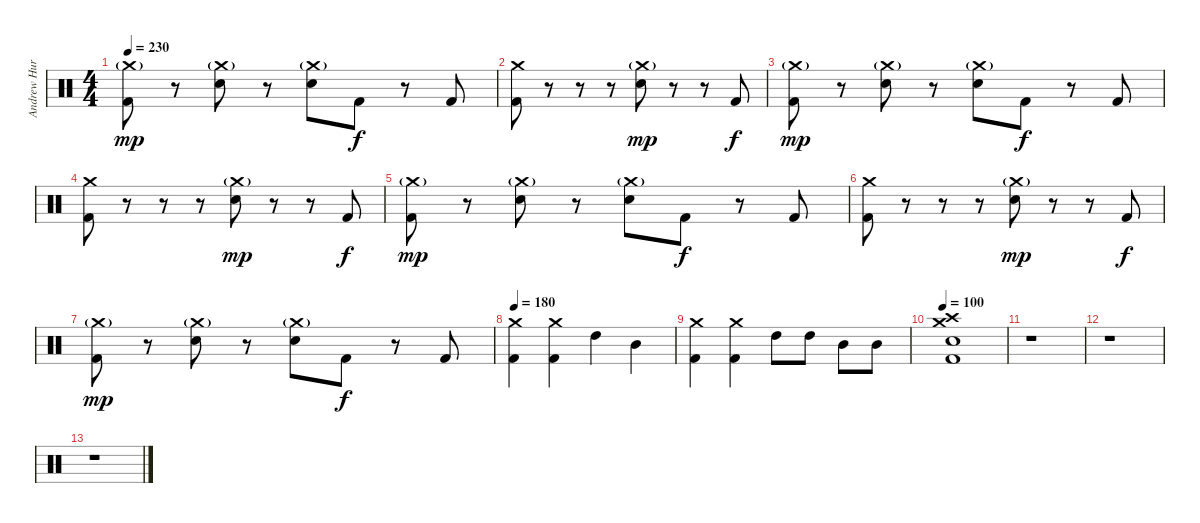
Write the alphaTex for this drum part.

\track ("Andrew Hurley (Drums)" "Andrew Hur") {instrument percussion}
\staff {score}
\articulation defaults
\ts (4 4)
\tempo 230
\clef neutral
\ks c
("Crash medium (hit)"{g} "Kick (hit) 2").8{dy mp} r.8 ("Crash medium (hit)"{g} "Electric Snare (hit)").8 r.8 ("Crash medium (hit)"{g} "Electric Snare (hit)").8 "Kick (hit) 2".8{dy f} r.8 "Kick (hit) 2".8 |
("Crash medium (hit)" "Kick (hit) 2").8 r.8 r.8 r.8 ("Crash medium (hit)"{g} "Electric Snare (hit)").8{dy mp} r.8 r.8 "Kick (hit) 2".8{dy f} |
("Crash medium (hit)"{g} "Kick (hit) 2").8{dy mp} r.8 ("Crash medium (hit)"{g} "Electric Snare (hit)").8 r.8 ("Crash medium (hit)"{g} "Electric Snare (hit)").8 "Kick (hit) 2".8{dy f} r.8 "Kick (hit) 2".8 |
("Crash medium (hit)" "Kick (hit) 2").8 r.8 r.8 r.8 ("Crash medium (hit)"{g} "Electric Snare (hit)").8{dy mp} r.8 r.8 "Kick (hit) 2".8{dy f} |
("Crash medium (hit)"{g} "Kick (hit) 2").8{dy mp} r.8 ("Crash medium (hit)"{g} "Electric Snare (hit)").8 r.8 ("Crash medium (hit)"{g} "Electric Snare (hit)").8 "Kick (hit) 2".8{dy f} r.8 "Kick (hit) 2".8 |
("Crash medium (hit)" "Kick (hit) 2").8 r.8 r.8 r.8 ("Crash medium (hit)"{g} "Electric Snare (hit)").8{dy mp} r.8 r.8 "Kick (hit) 2".8{dy f} |
("Crash medium (hit)"{g} "Kick (hit) 2").8{dy mp} r.8 ("Crash medium (hit)"{g} "Electric Snare (hit)").8 r.8 ("Crash medium (hit)"{g} "Electric Snare (hit)").8 "Kick (hit) 2".8{dy f} r.8 "Kick (hit) 2".8 |
\tempo 180
("Crash medium (hit)" "Kick (hit) 2").4 ("Crash medium (hit)" "Kick (hit) 2").4 "High Tom (hit)".4 "Mid Tom (hit)".4 |
("Crash medium (hit)" "Kick (hit) 2").4 ("Crash medium (hit)" "Kick (hit) 2").4 "High Tom (hit)".8 "High Tom (hit)".8 "Mid Tom (hit)".8 "Mid Tom (hit)".8 |
\tempo 100
("Crash medium (hit)" "Crash high (hit)" "Electric Snare (hit)" "Kick (hit) 2").1 |
r.1 |
r.1 |
r.1
